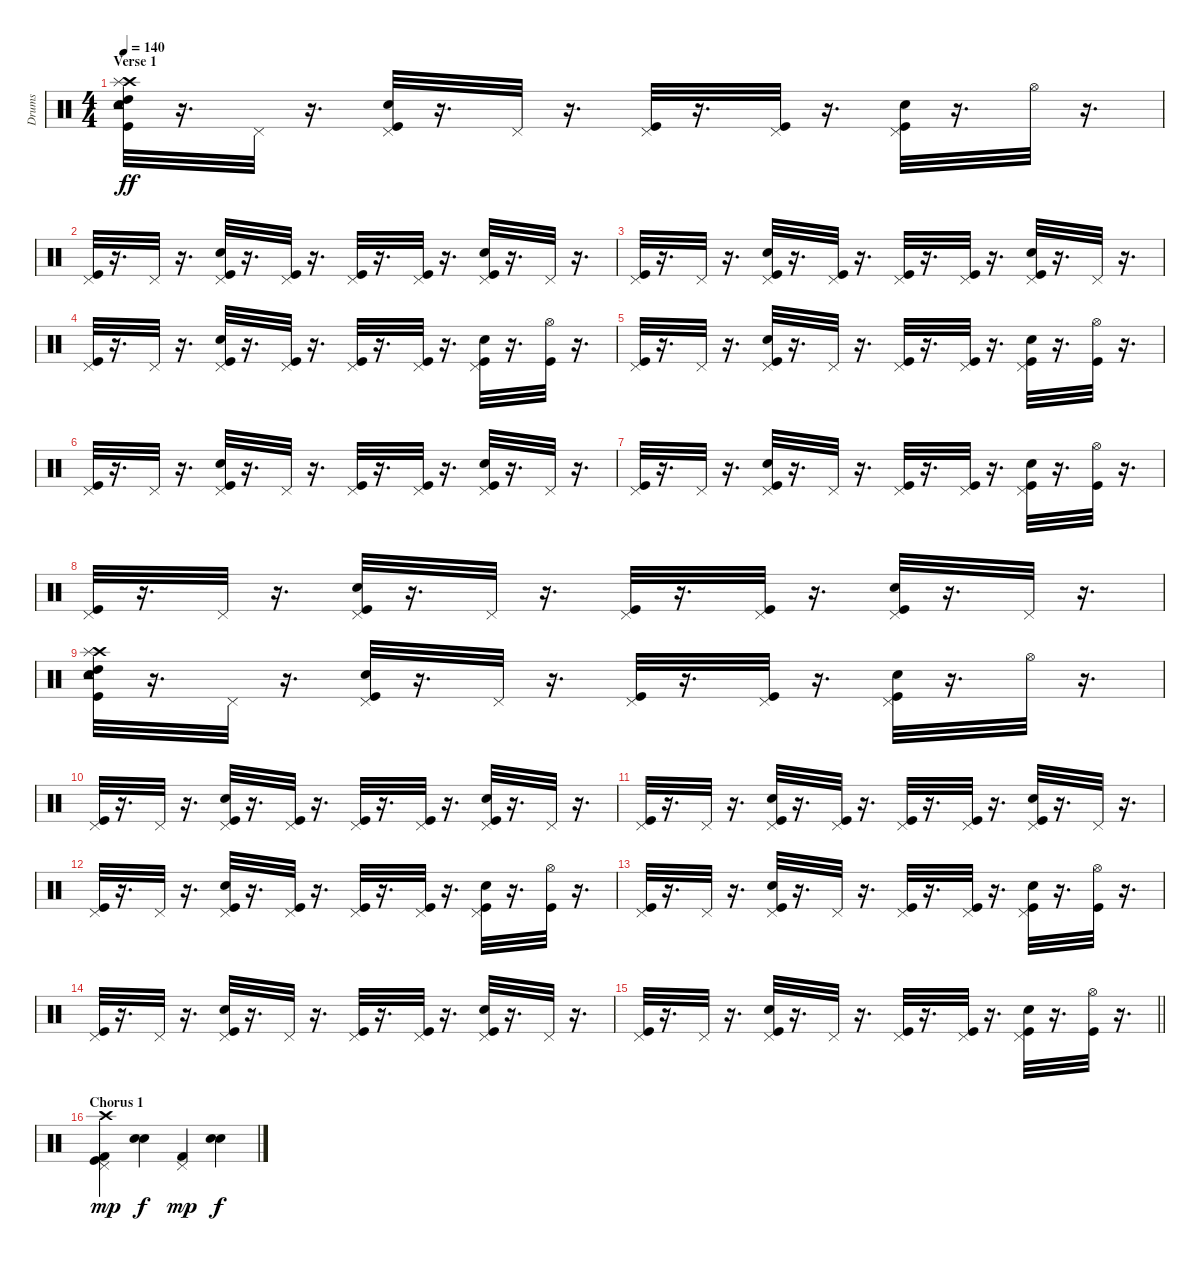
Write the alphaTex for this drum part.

\track ("Drums" "Drums") {instrument percussion}
\staff {score}
\articulation defaults
\ts (4 4)
\section ("" "Verse 1")
\tempo 140
\clef neutral
\ks c
("Crash high (hit)" "Kick (hit)" "Tambourine (hit)" "Snare (hit) 2" "Splash (hit)" "High Tom (hit)").32{dy ff} r.16{d} "Pedal Hi-Hat (hit)".32 r.16{d} ("Snare (hit) 2" "Pedal Hi-Hat (hit)" "Kick (hit)").32 r.16{d} "Pedal Hi-Hat (hit)".32 r.16{d} ("Pedal Hi-Hat (hit)" "Kick (hit)").32 r.16{d} ("Pedal Hi-Hat (hit)" "Kick (hit)").32 r.16{d} ("Pedal Hi-Hat (hit)" "Kick (hit)" "Snare (hit) 2").32 r.16{d} "Hi-Hat (open)".32 r.16{d} |
("Pedal Hi-Hat (hit)" "Kick (hit)").32 r.16{d} "Pedal Hi-Hat (hit)".32 r.16{d} ("Kick (hit)" "Snare (hit) 2" "Pedal Hi-Hat (hit)").32 r.16{d} ("Pedal Hi-Hat (hit)" "Kick (hit)").32 r.16{d} ("Pedal Hi-Hat (hit)" "Kick (hit)").32 r.16{d} ("Pedal Hi-Hat (hit)" "Kick (hit)").32 r.16{d} ("Snare (hit) 2" "Kick (hit)" "Pedal Hi-Hat (hit)").32 r.16{d} "Pedal Hi-Hat (hit)".32 r.16{d} |
("Pedal Hi-Hat (hit)" "Kick (hit)").32 r.16{d} "Pedal Hi-Hat (hit)".32 r.16{d} ("Snare (hit) 2" "Kick (hit)" "Pedal Hi-Hat (hit)").32 r.16{d} ("Kick (hit)" "Pedal Hi-Hat (hit)").32 r.16{d} ("Pedal Hi-Hat (hit)" "Kick (hit)").32 r.16{d} ("Pedal Hi-Hat (hit)" "Kick (hit)").32 r.16{d} ("Pedal Hi-Hat (hit)" "Snare (hit) 2" "Kick (hit)").32 r.16{d} "Pedal Hi-Hat (hit)".32 r.16{d} |
("Pedal Hi-Hat (hit)" "Kick (hit)").32 r.16{d} "Pedal Hi-Hat (hit)".32 r.16{d} ("Kick (hit)" "Pedal Hi-Hat (hit)" "Snare (hit) 2").32 r.16{d} ("Pedal Hi-Hat (hit)" "Kick (hit)").32 r.16{d} ("Pedal Hi-Hat (hit)" "Kick (hit)").32 r.16{d} ("Kick (hit)" "Pedal Hi-Hat (hit)").32 r.16{d} ("Kick (hit)" "Snare (hit) 2" "Pedal Hi-Hat (hit)").32 r.16{d} ("Hi-Hat (open)" "Kick (hit)").32 r.16{d} |
("Pedal Hi-Hat (hit)" "Kick (hit)").32 r.16{d} "Pedal Hi-Hat (hit)".32 r.16{d} ("Pedal Hi-Hat (hit)" "Kick (hit)" "Snare (hit) 2").32 r.16{d} "Pedal Hi-Hat (hit)".32 r.16{d} ("Kick (hit)" "Pedal Hi-Hat (hit)").32 r.16{d} ("Kick (hit)" "Pedal Hi-Hat (hit)").32 r.16{d} ("Kick (hit)" "Snare (hit) 2" "Pedal Hi-Hat (hit)").32 r.16{d} ("Kick (hit)" "Hi-Hat (open)").32 r.16{d} |
("Kick (hit)" "Pedal Hi-Hat (hit)").32 r.16{d} "Pedal Hi-Hat (hit)".32 r.16{d} ("Pedal Hi-Hat (hit)" "Kick (hit)" "Snare (hit) 2").32 r.16{d} "Pedal Hi-Hat (hit)".32 r.16{d} ("Pedal Hi-Hat (hit)" "Kick (hit)").32 r.16{d} ("Pedal Hi-Hat (hit)" "Kick (hit)").32 r.16{d} ("Snare (hit) 2" "Kick (hit)" "Pedal Hi-Hat (hit)").32 r.16{d} "Pedal Hi-Hat (hit)".32 r.16{d} |
("Pedal Hi-Hat (hit)" "Kick (hit)").32 r.16{d} "Pedal Hi-Hat (hit)".32 r.16{d} ("Pedal Hi-Hat (hit)" "Kick (hit)" "Snare (hit) 2").32 r.16{d} "Pedal Hi-Hat (hit)".32 r.16{d} ("Kick (hit)" "Pedal Hi-Hat (hit)").32 r.16{d} ("Kick (hit)" "Pedal Hi-Hat (hit)").32 r.16{d} ("Kick (hit)" "Snare (hit) 2" "Pedal Hi-Hat (hit)").32 r.16{d} ("Kick (hit)" "Hi-Hat (open)").32 r.16{d} |
("Kick (hit)" "Pedal Hi-Hat (hit)").32 r.16{d} "Pedal Hi-Hat (hit)".32 r.16{d} ("Pedal Hi-Hat (hit)" "Kick (hit)" "Snare (hit) 2").32 r.16{d} "Pedal Hi-Hat (hit)".32 r.16{d} ("Pedal Hi-Hat (hit)" "Kick (hit)").32 r.16{d} ("Pedal Hi-Hat (hit)" "Kick (hit)").32 r.16{d} ("Snare (hit) 2" "Kick (hit)" "Pedal Hi-Hat (hit)").32 r.16{d} "Pedal Hi-Hat (hit)".32 r.16{d} |
("Crash high (hit)" "Kick (hit)" "Tambourine (hit)" "Snare (hit) 2" "Splash (hit)" "High Tom (hit)").32 r.16{d} "Pedal Hi-Hat (hit)".32 r.16{d} ("Snare (hit) 2" "Pedal Hi-Hat (hit)" "Kick (hit)").32 r.16{d} "Pedal Hi-Hat (hit)".32 r.16{d} ("Pedal Hi-Hat (hit)" "Kick (hit)").32 r.16{d} ("Pedal Hi-Hat (hit)" "Kick (hit)").32 r.16{d} ("Pedal Hi-Hat (hit)" "Kick (hit)" "Snare (hit) 2").32 r.16{d} "Hi-Hat (open)".32 r.16{d} |
("Pedal Hi-Hat (hit)" "Kick (hit)").32 r.16{d} "Pedal Hi-Hat (hit)".32 r.16{d} ("Kick (hit)" "Snare (hit) 2" "Pedal Hi-Hat (hit)").32 r.16{d} ("Pedal Hi-Hat (hit)" "Kick (hit)").32 r.16{d} ("Pedal Hi-Hat (hit)" "Kick (hit)").32 r.16{d} ("Pedal Hi-Hat (hit)" "Kick (hit)").32 r.16{d} ("Snare (hit) 2" "Kick (hit)" "Pedal Hi-Hat (hit)").32 r.16{d} "Pedal Hi-Hat (hit)".32 r.16{d} |
("Pedal Hi-Hat (hit)" "Kick (hit)").32 r.16{d} "Pedal Hi-Hat (hit)".32 r.16{d} ("Snare (hit) 2" "Kick (hit)" "Pedal Hi-Hat (hit)").32 r.16{d} ("Kick (hit)" "Pedal Hi-Hat (hit)").32 r.16{d} ("Pedal Hi-Hat (hit)" "Kick (hit)").32 r.16{d} ("Pedal Hi-Hat (hit)" "Kick (hit)").32 r.16{d} ("Pedal Hi-Hat (hit)" "Snare (hit) 2" "Kick (hit)").32 r.16{d} "Pedal Hi-Hat (hit)".32 r.16{d} |
("Pedal Hi-Hat (hit)" "Kick (hit)").32 r.16{d} "Pedal Hi-Hat (hit)".32 r.16{d} ("Kick (hit)" "Pedal Hi-Hat (hit)" "Snare (hit) 2").32 r.16{d} ("Pedal Hi-Hat (hit)" "Kick (hit)").32 r.16{d} ("Pedal Hi-Hat (hit)" "Kick (hit)").32 r.16{d} ("Kick (hit)" "Pedal Hi-Hat (hit)").32 r.16{d} ("Kick (hit)" "Snare (hit) 2" "Pedal Hi-Hat (hit)").32 r.16{d} ("Hi-Hat (open)" "Kick (hit)").32 r.16{d} |
("Pedal Hi-Hat (hit)" "Kick (hit)").32 r.16{d} "Pedal Hi-Hat (hit)".32 r.16{d} ("Pedal Hi-Hat (hit)" "Kick (hit)" "Snare (hit) 2").32 r.16{d} "Pedal Hi-Hat (hit)".32 r.16{d} ("Kick (hit)" "Pedal Hi-Hat (hit)").32 r.16{d} ("Kick (hit)" "Pedal Hi-Hat (hit)").32 r.16{d} ("Kick (hit)" "Snare (hit) 2" "Pedal Hi-Hat (hit)").32 r.16{d} ("Kick (hit)" "Hi-Hat (open)").32 r.16{d} |
("Kick (hit)" "Pedal Hi-Hat (hit)").32 r.16{d} "Pedal Hi-Hat (hit)".32 r.16{d} ("Pedal Hi-Hat (hit)" "Kick (hit)" "Snare (hit) 2").32 r.16{d} "Pedal Hi-Hat (hit)".32 r.16{d} ("Pedal Hi-Hat (hit)" "Kick (hit)").32 r.16{d} ("Pedal Hi-Hat (hit)" "Kick (hit)").32 r.16{d} ("Snare (hit) 2" "Kick (hit)" "Pedal Hi-Hat (hit)").32 r.16{d} "Pedal Hi-Hat (hit)".32 r.16{d} |
\barLineRight lightlight
("Pedal Hi-Hat (hit)" "Kick (hit)").32 r.16{d} "Pedal Hi-Hat (hit)".32 r.16{d} ("Pedal Hi-Hat (hit)" "Kick (hit)" "Snare (hit) 2").32 r.16{d} "Pedal Hi-Hat (hit)".32 r.16{d} ("Kick (hit)" "Pedal Hi-Hat (hit)").32 r.16{d} ("Kick (hit)" "Pedal Hi-Hat (hit)").32 r.16{d} ("Kick (hit)" "Snare (hit) 2" "Pedal Hi-Hat (hit)").32 r.16{d} ("Kick (hit)" "Hi-Hat (open)").32 r.16{d} |
\section ("" "Chorus 1")
("Pedal Hi-Hat (hit)" "Kick (hit)" "Crash high (hit)" "Kick (hit) 2").4{dy mp} ("Snare (hit) 2" "Electric Snare (hit)").4{dy f} ("Pedal Hi-Hat (hit)" "Kick (hit) 2").4{dy mp} ("Snare (hit) 2" "Electric Snare (hit)").4{dy f}
